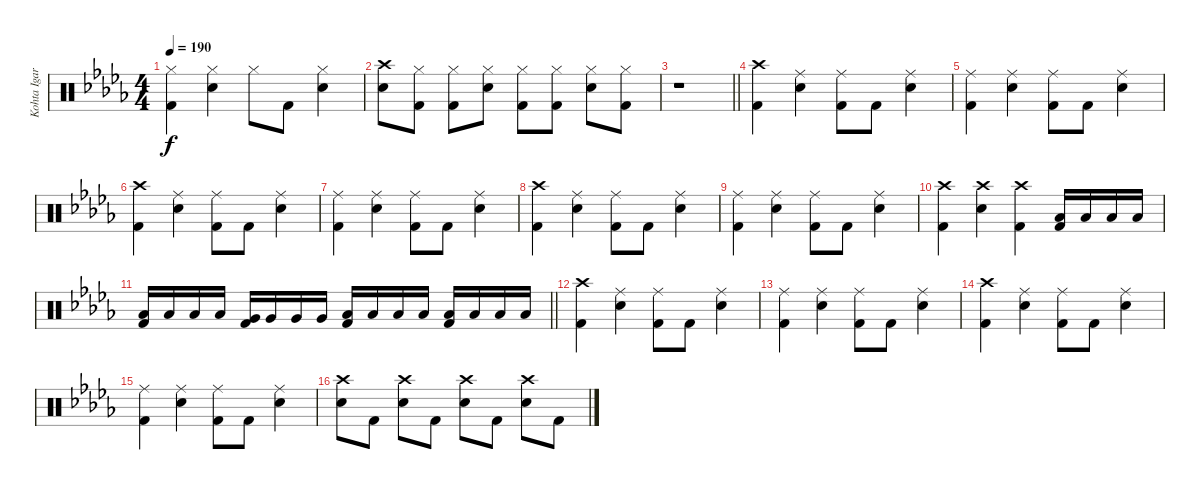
\track ("Kohta Igarashi" "Kohta Igar") {instrument percussion}
\staff {score}
\articulation defaults
\ts (4 4)
\tempo 190
\clef neutral
\ks db
("Hi-Hat (closed)" "Kick (hit) 2").4{dy f} ("Hi-Hat (closed)" "Electric Snare (hit)").4 "Hi-Hat (closed)".8 "Kick (hit) 2".8 ("Hi-Hat (closed)" "Electric Snare (hit)").4 |
("Crash high (hit)" "Electric Snare (hit)").8 ("Hi-Hat (closed)" "Kick (hit) 2").8 ("Hi-Hat (closed)" "Kick (hit) 2").8 ("Hi-Hat (closed)" "Electric Snare (hit)").8 ("Hi-Hat (closed)" "Kick (hit) 2").8 ("Hi-Hat (closed)" "Kick (hit) 2").8 ("Hi-Hat (closed)" "Electric Snare (hit)").8 ("Hi-Hat (closed)" "Kick (hit) 2").8 |
\barLineRight lightlight
r.1 |
("Crash high (hit)" "Kick (hit) 2").4 ("Ride (middle)" "Electric Snare (hit)").4 ("Ride (middle)" "Kick (hit) 2").8 "Kick (hit) 2".8 ("Ride (middle)" "Electric Snare (hit)").4 |
("Ride (middle)" "Kick (hit) 2").4 ("Ride (middle)" "Electric Snare (hit)").4 ("Ride (middle)" "Kick (hit) 2").8 "Kick (hit) 2".8 ("Ride (middle)" "Electric Snare (hit)").4 |
("Crash high (hit)" "Kick (hit) 2").4 ("Ride (middle)" "Electric Snare (hit)").4 ("Ride (middle)" "Kick (hit) 2").8 "Kick (hit) 2".8 ("Ride (middle)" "Electric Snare (hit)").4 |
("Ride (middle)" "Kick (hit) 2").4 ("Ride (middle)" "Electric Snare (hit)").4 ("Ride (middle)" "Kick (hit) 2").8 "Kick (hit) 2".8 ("Ride (middle)" "Electric Snare (hit)").4 |
("Crash high (hit)" "Kick (hit) 2").4 ("Ride (middle)" "Electric Snare (hit)").4 ("Ride (middle)" "Kick (hit) 2").8 "Kick (hit) 2".8 ("Ride (middle)" "Electric Snare (hit)").4 |
("Ride (middle)" "Kick (hit) 2").4 ("Ride (middle)" "Electric Snare (hit)").4 ("Ride (middle)" "Kick (hit) 2").8 "Kick (hit) 2".8 ("Ride (middle)" "Electric Snare (hit)").4 |
("Crash high (hit)" "Kick (hit) 2").4 ("Crash high (hit)" "Electric Snare (hit)").4 ("Crash high (hit)" "Kick (hit) 2").4 ("Low Tom (hit)" "Kick (hit) 2").16 "Low Tom (hit)".16 "Low Tom (hit)".16 "Low Tom (hit)".16 |
\barLineRight lightlight
("Low Tom (hit)" "Kick (hit) 2").16 "Low Tom (hit)".16 "Low Tom (hit)".16 "Low Tom (hit)".16 ("Very Low Tom (hit)" "Kick (hit) 2").16 "Very Low Tom (hit)".16 "Very Low Tom (hit)".16 "Very Low Tom (hit)".16 ("Low Floor Tom (hit)" "Kick (hit) 2").16 "Low Floor Tom (hit)".16 "Low Floor Tom (hit)".16 "Low Floor Tom (hit)".16 ("Low Floor Tom (hit)" "Kick (hit) 2").16 "Low Floor Tom (hit)".16 "Low Floor Tom (hit)".16 "Low Floor Tom (hit)".16 |
("Crash high (hit)" "Kick (hit) 2").4 ("Ride (middle)" "Electric Snare (hit)").4 ("Ride (middle)" "Kick (hit) 2").8 "Kick (hit) 2".8 ("Ride (middle)" "Electric Snare (hit)").4 |
("Ride (middle)" "Kick (hit) 2").4 ("Ride (middle)" "Electric Snare (hit)").4 ("Ride (middle)" "Kick (hit) 2").8 "Kick (hit) 2".8 ("Ride (middle)" "Electric Snare (hit)").4 |
("Crash high (hit)" "Kick (hit) 2").4 ("Ride (middle)" "Electric Snare (hit)").4 ("Ride (middle)" "Kick (hit) 2").8 "Kick (hit) 2".8 ("Ride (middle)" "Electric Snare (hit)").4 |
("Ride (middle)" "Kick (hit) 2").4 ("Ride (middle)" "Electric Snare (hit)").4 ("Ride (middle)" "Kick (hit) 2").8 "Kick (hit) 2".8 ("Ride (middle)" "Electric Snare (hit)").4 |
("Crash high (hit)" "Electric Snare (hit)").8 "Kick (hit) 2".8 ("Crash high (hit)" "Electric Snare (hit)").8 "Kick (hit) 2".8 ("Crash high (hit)" "Electric Snare (hit)").8 "Kick (hit) 2".8 ("Crash high (hit)" "Electric Snare (hit)").8 "Kick (hit) 2".8
